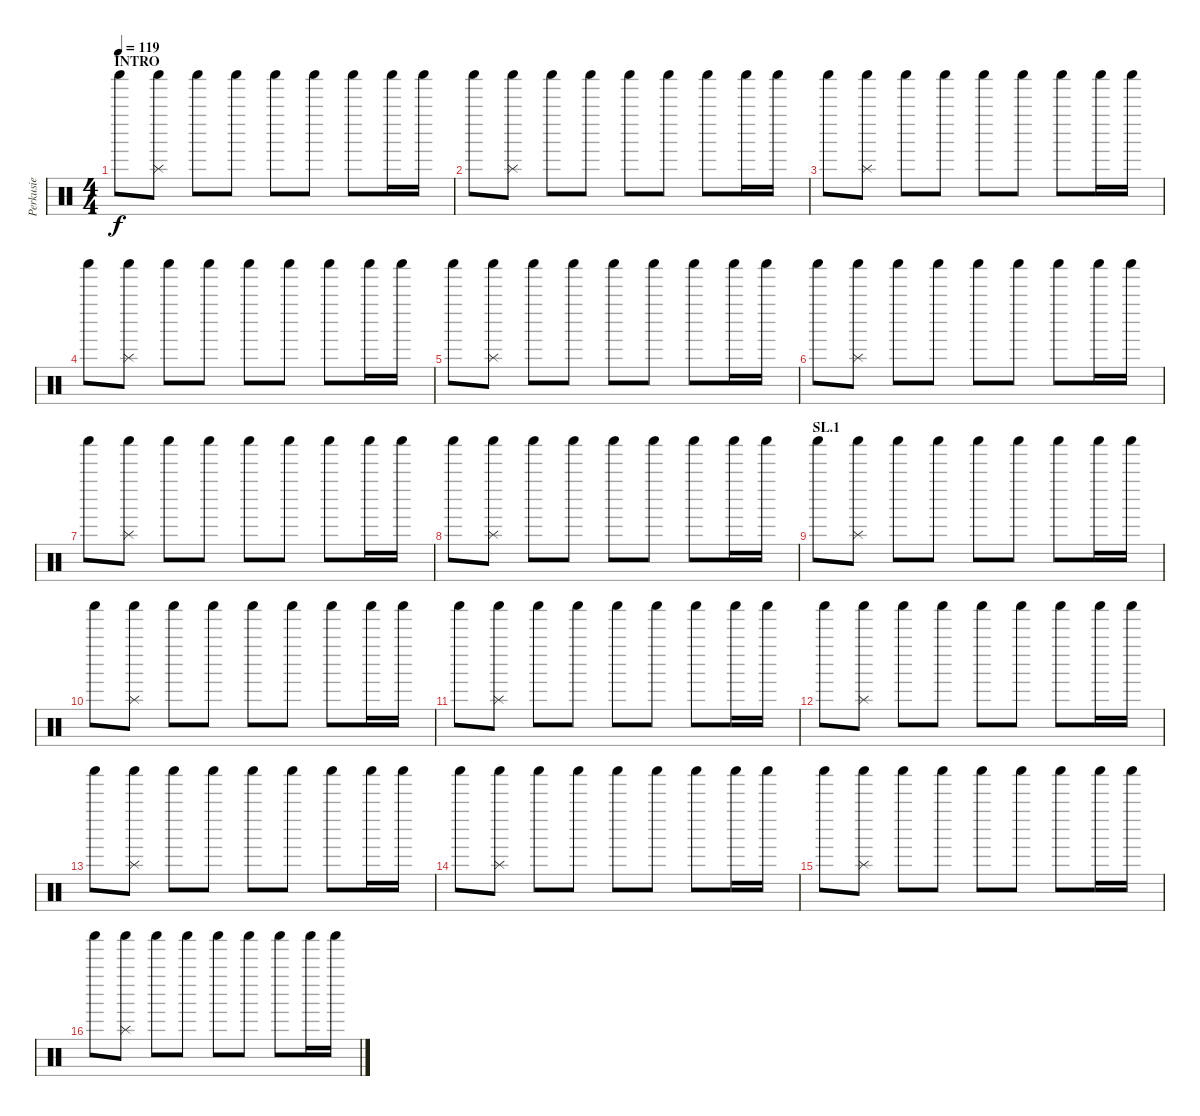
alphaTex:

\track ("Perkusie" "Perkusie") {instrument percussion}
\staff {score}
\articulation defaults
\ts (4 4)
\section ("" "INTRO")
\tempo 119
\clef neutral
\ks c "Shaker (hit)".8{dy f}
("Shaker (hit)" "Splash (hit)").8 "Shaker (hit)".8 "Shaker (hit)".8 "Shaker (hit)".8 "Shaker (hit)".8 "Shaker (hit)".8 "Shaker (hit)".16 "Shaker (hit)".16 |
"Shaker (hit)".8 ("Shaker (hit)" "Splash (hit)").8 "Shaker (hit)".8 "Shaker (hit)".8 "Shaker (hit)".8 "Shaker (hit)".8 "Shaker (hit)".8 "Shaker (hit)".16 "Shaker (hit)".16 |
"Shaker (hit)".8 ("Shaker (hit)" "Splash (hit)").8 "Shaker (hit)".8 "Shaker (hit)".8 "Shaker (hit)".8 "Shaker (hit)".8 "Shaker (hit)".8 "Shaker (hit)".16 "Shaker (hit)".16 |
"Shaker (hit)".8 ("Shaker (hit)" "Splash (hit)").8 "Shaker (hit)".8 "Shaker (hit)".8 "Shaker (hit)".8 "Shaker (hit)".8 "Shaker (hit)".8 "Shaker (hit)".16 "Shaker (hit)".16 |
"Shaker (hit)".8 ("Shaker (hit)" "Splash (hit)").8 "Shaker (hit)".8 "Shaker (hit)".8 "Shaker (hit)".8 "Shaker (hit)".8 "Shaker (hit)".8 "Shaker (hit)".16 "Shaker (hit)".16 |
"Shaker (hit)".8 ("Shaker (hit)" "Splash (hit)").8 "Shaker (hit)".8 "Shaker (hit)".8 "Shaker (hit)".8 "Shaker (hit)".8 "Shaker (hit)".8 "Shaker (hit)".16 "Shaker (hit)".16 |
"Shaker (hit)".8 ("Shaker (hit)" "Splash (hit)").8 "Shaker (hit)".8 "Shaker (hit)".8 "Shaker (hit)".8 "Shaker (hit)".8 "Shaker (hit)".8 "Shaker (hit)".16 "Shaker (hit)".16 |
"Shaker (hit)".8 ("Shaker (hit)" "Splash (hit)").8 "Shaker (hit)".8 "Shaker (hit)".8 "Shaker (hit)".8 "Shaker (hit)".8 "Shaker (hit)".8 "Shaker (hit)".16 "Shaker (hit)".16 |
\section ("" "SL.1")
"Shaker (hit)".8 ("Shaker (hit)" "Splash (hit)").8 "Shaker (hit)".8 "Shaker (hit)".8 "Shaker (hit)".8 "Shaker (hit)".8 "Shaker (hit)".8 "Shaker (hit)".16 "Shaker (hit)".16 |
"Shaker (hit)".8 ("Shaker (hit)" "Splash (hit)").8 "Shaker (hit)".8 "Shaker (hit)".8 "Shaker (hit)".8 "Shaker (hit)".8 "Shaker (hit)".8 "Shaker (hit)".16 "Shaker (hit)".16 |
"Shaker (hit)".8 ("Shaker (hit)" "Splash (hit)").8 "Shaker (hit)".8 "Shaker (hit)".8 "Shaker (hit)".8 "Shaker (hit)".8 "Shaker (hit)".8 "Shaker (hit)".16 "Shaker (hit)".16 |
"Shaker (hit)".8 ("Shaker (hit)" "Splash (hit)").8 "Shaker (hit)".8 "Shaker (hit)".8 "Shaker (hit)".8 "Shaker (hit)".8 "Shaker (hit)".8 "Shaker (hit)".16 "Shaker (hit)".16 |
"Shaker (hit)".8 ("Shaker (hit)" "Splash (hit)").8 "Shaker (hit)".8 "Shaker (hit)".8 "Shaker (hit)".8 "Shaker (hit)".8 "Shaker (hit)".8 "Shaker (hit)".16 "Shaker (hit)".16 |
"Shaker (hit)".8 ("Shaker (hit)" "Splash (hit)").8 "Shaker (hit)".8 "Shaker (hit)".8 "Shaker (hit)".8 "Shaker (hit)".8 "Shaker (hit)".8 "Shaker (hit)".16 "Shaker (hit)".16 |
"Shaker (hit)".8 ("Shaker (hit)" "Splash (hit)").8 "Shaker (hit)".8 "Shaker (hit)".8 "Shaker (hit)".8 "Shaker (hit)".8 "Shaker (hit)".8 "Shaker (hit)".16 "Shaker (hit)".16 |
"Shaker (hit)".8 ("Shaker (hit)" "Splash (hit)").8 "Shaker (hit)".8 "Shaker (hit)".8 "Shaker (hit)".8 "Shaker (hit)".8 "Shaker (hit)".8 "Shaker (hit)".16 "Shaker (hit)".16
